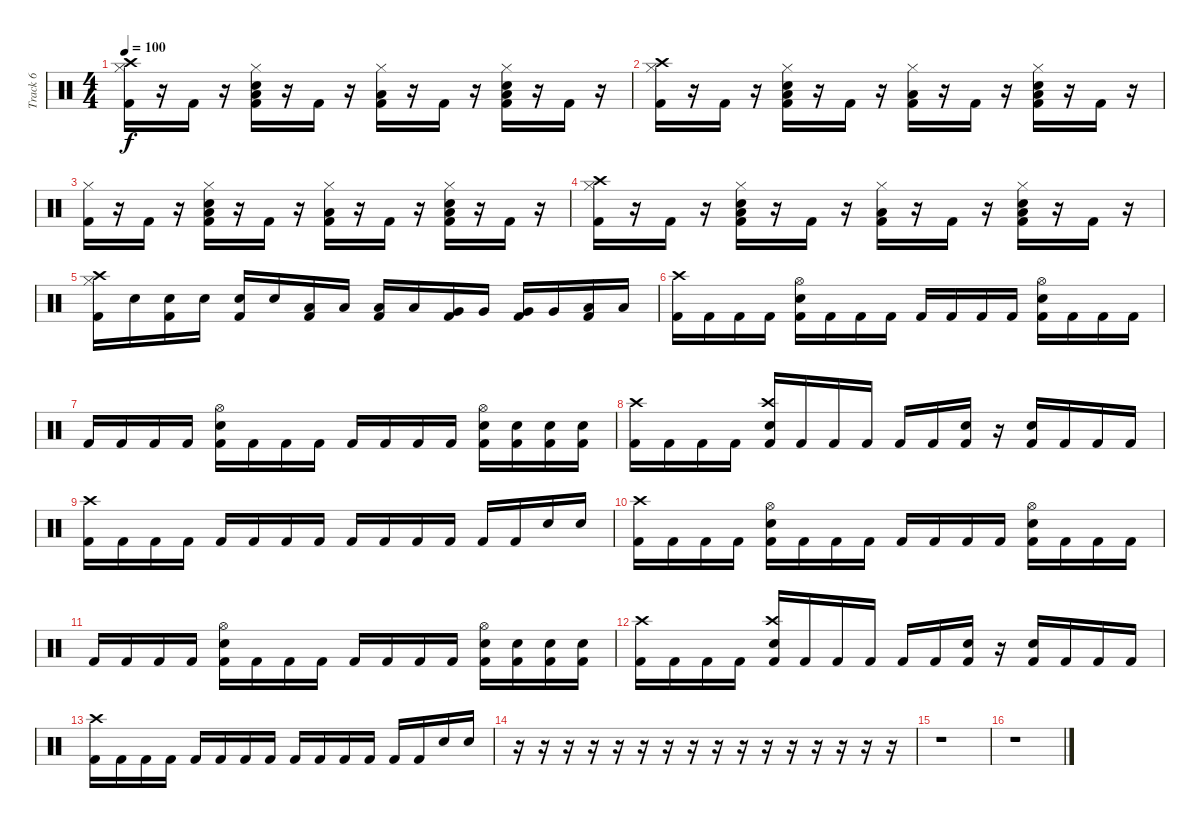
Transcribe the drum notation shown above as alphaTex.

\track ("Track 6" "Track 6") {instrument percussion}
\staff {score}
\articulation defaults
\ts (4 4)
\tempo 100
\clef neutral
\ks c
("Hi-Hat (closed)" "Kick (hit) 2" "Crash high (hit)").16{dy f} r.16 "Kick (hit) 2".16 r.16 ("Hi-Hat (closed)" "Kick (hit) 2" "Low Floor Tom (hit)" "Snare (hit) 2").16 r.16 "Kick (hit) 2".16 r.16 ("Hi-Hat (closed)" "Kick (hit) 2" "Low Floor Tom (hit)").16 r.16 "Kick (hit) 2".16 r.16 ("Hi-Hat (closed)" "Kick (hit) 2" "Low Floor Tom (hit)" "Snare (hit) 2").16 r.16 "Kick (hit) 2".16 r.16 |
("Hi-Hat (closed)" "Kick (hit) 2" "Crash high (hit)").16 r.16 "Kick (hit) 2".16 r.16 ("Hi-Hat (closed)" "Kick (hit) 2" "Low Floor Tom (hit)" "Snare (hit) 2").16 r.16 "Kick (hit) 2".16 r.16 ("Hi-Hat (closed)" "Kick (hit) 2" "Low Floor Tom (hit)").16 r.16 "Kick (hit) 2".16 r.16 ("Hi-Hat (closed)" "Kick (hit) 2" "Low Floor Tom (hit)" "Snare (hit) 2").16 r.16 "Kick (hit) 2".16 r.16 |
("Hi-Hat (closed)" "Kick (hit) 2").16 r.16 "Kick (hit) 2".16 r.16 ("Hi-Hat (closed)" "Kick (hit) 2" "Low Floor Tom (hit)" "Snare (hit) 2").16 r.16 "Kick (hit) 2".16 r.16 ("Hi-Hat (closed)" "Kick (hit) 2" "Low Floor Tom (hit)").16 r.16 "Kick (hit) 2".16 r.16 ("Hi-Hat (closed)" "Kick (hit) 2" "Low Floor Tom (hit)" "Snare (hit) 2").16 r.16 "Kick (hit) 2".16 r.16 |
("Hi-Hat (closed)" "Kick (hit) 2" "Crash high (hit)").16 r.16 "Kick (hit) 2".16 r.16 ("Hi-Hat (closed)" "Kick (hit) 2" "Low Floor Tom (hit)" "Snare (hit) 2").16 r.16 "Kick (hit) 2".16 r.16 ("Hi-Hat (closed)" "Kick (hit) 2" "Low Floor Tom (hit)").16 r.16 "Kick (hit) 2".16 r.16 ("Hi-Hat (closed)" "Kick (hit) 2" "Low Floor Tom (hit)" "Snare (hit) 2").16 r.16 "Kick (hit) 2".16 r.16 |
("Hi-Hat (closed)" "Kick (hit) 2" "Crash high (hit)").16 "Electric Snare (hit)".16 ("Kick (hit) 2" "Electric Snare (hit)").16 "Electric Snare (hit)".16 ("Electric Snare (hit)" "Kick (hit) 2").16 "Electric Snare (hit)".16 ("Kick (hit) 2" "Low Floor Tom (hit)").16 "Low Floor Tom (hit)".16 ("Low Floor Tom (hit)" "Kick (hit) 2").16 "Low Floor Tom (hit)".16 ("Kick (hit) 2" "Very Low Tom (hit)").16 "Very Low Tom (hit)".16 ("Very Low Tom (hit)" "Kick (hit) 2").16 "Very Low Tom (hit)".16 ("Kick (hit) 2" "Low Tom (hit)").16 "Low Tom (hit)".16 |
("Kick (hit) 2" "Crash high (hit)").16 "Kick (hit) 2".16 "Kick (hit) 2".16 "Kick (hit) 2".16 ("Kick (hit) 2" "Snare (hit) 2" "Hi-Hat (open)").16 "Kick (hit) 2".16 "Kick (hit) 2".16 "Kick (hit) 2".16 "Kick (hit) 2".16 "Kick (hit) 2".16 "Kick (hit) 2".16 "Kick (hit) 2".16 ("Kick (hit) 2" "Snare (hit) 2" "Hi-Hat (open)").16 "Kick (hit) 2".16 "Kick (hit) 2".16 "Kick (hit) 2".16 |
"Kick (hit) 2".16 "Kick (hit) 2".16 "Kick (hit) 2".16 "Kick (hit) 2".16 ("Kick (hit) 2" "Snare (hit) 2" "Hi-Hat (open)").16 "Kick (hit) 2".16 "Kick (hit) 2".16 "Kick (hit) 2".16 "Kick (hit) 2".16 "Kick (hit) 2".16 "Kick (hit) 2".16 "Kick (hit) 2".16 ("Kick (hit) 2" "Snare (hit) 2" "Hi-Hat (open)").16 ("Kick (hit) 2" "Snare (hit) 2").16 ("Kick (hit) 2" "Snare (hit) 2").16 ("Kick (hit) 2" "Snare (hit) 2").16 |
("Kick (hit) 2" "Crash high (hit)").16 "Kick (hit) 2".16 "Kick (hit) 2".16 "Kick (hit) 2".16 ("Kick (hit) 2" "Crash high (hit)" "Snare (hit) 2").16 "Kick (hit) 2".16 "Kick (hit) 2".16 "Kick (hit) 2".16 "Kick (hit) 2".16 "Kick (hit) 2".16 ("Snare (hit) 2" "Kick (hit) 2").16 r.16 ("Snare (hit) 2" "Kick (hit) 2").16 "Kick (hit) 2".16 "Kick (hit) 2".16 "Kick (hit) 2".16 |
("Crash high (hit)" "Kick (hit) 2").16 "Kick (hit) 2".16 "Kick (hit) 2".16 "Kick (hit) 2".16 "Kick (hit) 2".16 "Kick (hit) 2".16 "Kick (hit) 2".16 "Kick (hit) 2".16 "Kick (hit) 2".16 "Kick (hit) 2".16 "Kick (hit) 2".16 "Kick (hit) 2".16 "Kick (hit) 2".16 "Kick (hit) 2".16 "Snare (hit) 2".16 "Snare (hit) 2".16 |
("Kick (hit) 2" "Crash high (hit)").16 "Kick (hit) 2".16 "Kick (hit) 2".16 "Kick (hit) 2".16 ("Kick (hit) 2" "Snare (hit) 2" "Hi-Hat (open)").16 "Kick (hit) 2".16 "Kick (hit) 2".16 "Kick (hit) 2".16 "Kick (hit) 2".16 "Kick (hit) 2".16 "Kick (hit) 2".16 "Kick (hit) 2".16 ("Kick (hit) 2" "Snare (hit) 2" "Hi-Hat (open)").16 "Kick (hit) 2".16 "Kick (hit) 2".16 "Kick (hit) 2".16 |
"Kick (hit) 2".16 "Kick (hit) 2".16 "Kick (hit) 2".16 "Kick (hit) 2".16 ("Kick (hit) 2" "Snare (hit) 2" "Hi-Hat (open)").16 "Kick (hit) 2".16 "Kick (hit) 2".16 "Kick (hit) 2".16 "Kick (hit) 2".16 "Kick (hit) 2".16 "Kick (hit) 2".16 "Kick (hit) 2".16 ("Kick (hit) 2" "Snare (hit) 2" "Hi-Hat (open)").16 ("Kick (hit) 2" "Snare (hit) 2").16 ("Kick (hit) 2" "Snare (hit) 2").16 ("Kick (hit) 2" "Snare (hit) 2").16 |
("Kick (hit) 2" "Crash high (hit)").16 "Kick (hit) 2".16 "Kick (hit) 2".16 "Kick (hit) 2".16 ("Kick (hit) 2" "Crash high (hit)" "Snare (hit) 2").16 "Kick (hit) 2".16 "Kick (hit) 2".16 "Kick (hit) 2".16 "Kick (hit) 2".16 "Kick (hit) 2".16 ("Snare (hit) 2" "Kick (hit) 2").16 r.16 ("Snare (hit) 2" "Kick (hit) 2").16 "Kick (hit) 2".16 "Kick (hit) 2".16 "Kick (hit) 2".16 |
("Crash high (hit)" "Kick (hit) 2").16 "Kick (hit) 2".16 "Kick (hit) 2".16 "Kick (hit) 2".16 "Kick (hit) 2".16 "Kick (hit) 2".16 "Kick (hit) 2".16 "Kick (hit) 2".16 "Kick (hit) 2".16 "Kick (hit) 2".16 "Kick (hit) 2".16 "Kick (hit) 2".16 "Kick (hit) 2".16 "Kick (hit) 2".16 "Snare (hit) 2".16 "Snare (hit) 2".16 |
r.16 r.16 r.16 r.16 r.16 r.16 r.16 r.16 r.16 r.16 r.16 r.16 r.16 r.16 r.16 r.16 |
r.1 |
r.1
